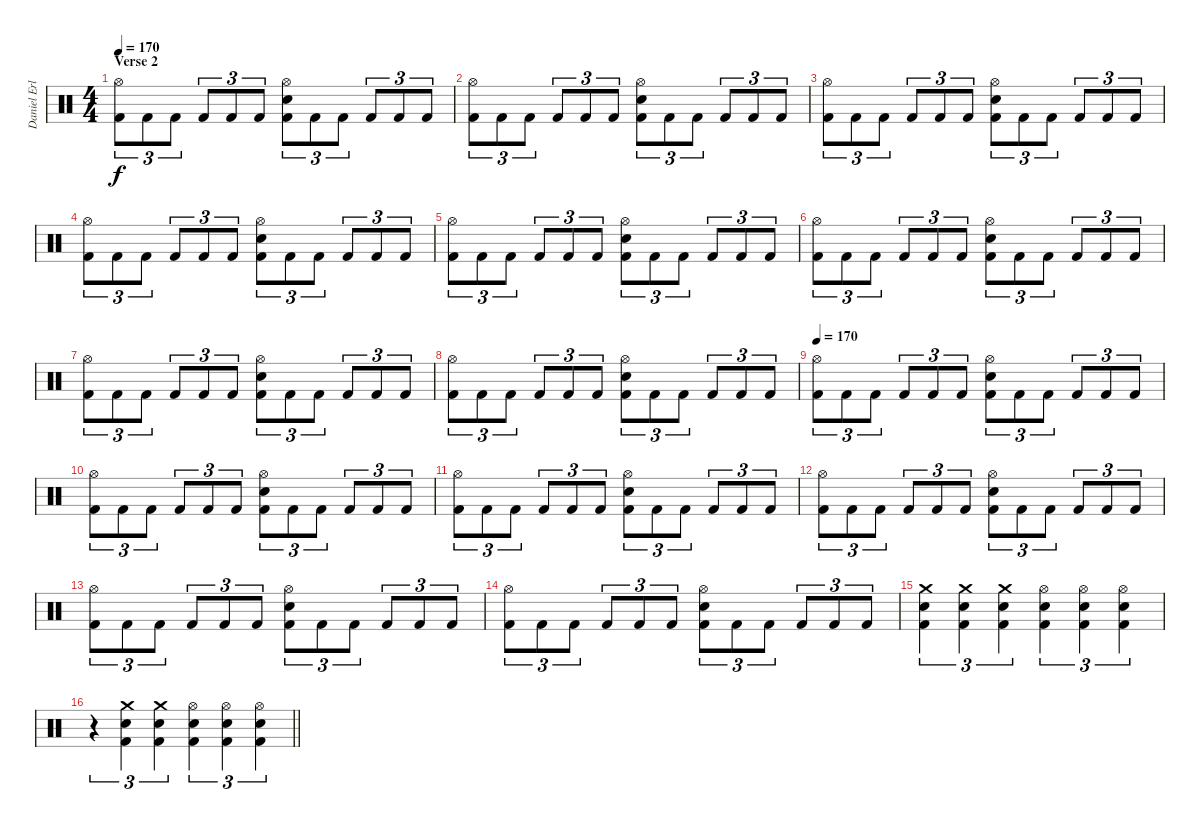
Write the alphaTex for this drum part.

\track ("Daniel Erlandsson" "Daniel Erl") {instrument percussion}
\staff {score}
\articulation defaults
\ts (4 4)
\section ("" "Verse 2")
\tempo 170
\clef neutral
\ks c
("Hi-Hat (open)" "Kick (hit) 2").8{tu (3 2) dy f} "Kick (hit) 2".8{tu (3 2)} "Kick (hit) 2".8{tu (3 2)} "Kick (hit) 2".8{tu (3 2)} "Kick (hit) 2".8{tu (3 2)} "Kick (hit) 2".8{tu (3 2)} ("Hi-Hat (open)" "Snare (hit) 2" "Kick (hit) 2").8{tu (3 2)} "Kick (hit) 2".8{tu (3 2)} "Kick (hit) 2".8{tu (3 2)} "Kick (hit) 2".8{tu (3 2)} "Kick (hit) 2".8{tu (3 2)} "Kick (hit) 2".8{tu (3 2)} |
("Hi-Hat (open)" "Kick (hit) 2").8{tu (3 2)} "Kick (hit) 2".8{tu (3 2)} "Kick (hit) 2".8{tu (3 2)} "Kick (hit) 2".8{tu (3 2)} "Kick (hit) 2".8{tu (3 2)} "Kick (hit) 2".8{tu (3 2)} ("Hi-Hat (open)" "Snare (hit) 2" "Kick (hit) 2").8{tu (3 2)} "Kick (hit) 2".8{tu (3 2)} "Kick (hit) 2".8{tu (3 2)} "Kick (hit) 2".8{tu (3 2)} "Kick (hit) 2".8{tu (3 2)} "Kick (hit) 2".8{tu (3 2)} |
("Hi-Hat (open)" "Kick (hit) 2").8{tu (3 2)} "Kick (hit) 2".8{tu (3 2)} "Kick (hit) 2".8{tu (3 2)} "Kick (hit) 2".8{tu (3 2)} "Kick (hit) 2".8{tu (3 2)} "Kick (hit) 2".8{tu (3 2)} ("Hi-Hat (open)" "Snare (hit) 2" "Kick (hit) 2").8{tu (3 2)} "Kick (hit) 2".8{tu (3 2)} "Kick (hit) 2".8{tu (3 2)} "Kick (hit) 2".8{tu (3 2)} "Kick (hit) 2".8{tu (3 2)} "Kick (hit) 2".8{tu (3 2)} |
("Hi-Hat (open)" "Kick (hit) 2").8{tu (3 2)} "Kick (hit) 2".8{tu (3 2)} "Kick (hit) 2".8{tu (3 2)} "Kick (hit) 2".8{tu (3 2)} "Kick (hit) 2".8{tu (3 2)} "Kick (hit) 2".8{tu (3 2)} ("Hi-Hat (open)" "Snare (hit) 2" "Kick (hit) 2").8{tu (3 2)} "Kick (hit) 2".8{tu (3 2)} "Kick (hit) 2".8{tu (3 2)} "Kick (hit) 2".8{tu (3 2)} "Kick (hit) 2".8{tu (3 2)} "Kick (hit) 2".8{tu (3 2)} |
("Hi-Hat (open)" "Kick (hit) 2").8{tu (3 2)} "Kick (hit) 2".8{tu (3 2)} "Kick (hit) 2".8{tu (3 2)} "Kick (hit) 2".8{tu (3 2)} "Kick (hit) 2".8{tu (3 2)} "Kick (hit) 2".8{tu (3 2)} ("Hi-Hat (open)" "Snare (hit) 2" "Kick (hit) 2").8{tu (3 2)} "Kick (hit) 2".8{tu (3 2)} "Kick (hit) 2".8{tu (3 2)} "Kick (hit) 2".8{tu (3 2)} "Kick (hit) 2".8{tu (3 2)} "Kick (hit) 2".8{tu (3 2)} |
("Hi-Hat (open)" "Kick (hit) 2").8{tu (3 2)} "Kick (hit) 2".8{tu (3 2)} "Kick (hit) 2".8{tu (3 2)} "Kick (hit) 2".8{tu (3 2)} "Kick (hit) 2".8{tu (3 2)} "Kick (hit) 2".8{tu (3 2)} ("Hi-Hat (open)" "Snare (hit) 2" "Kick (hit) 2").8{tu (3 2)} "Kick (hit) 2".8{tu (3 2)} "Kick (hit) 2".8{tu (3 2)} "Kick (hit) 2".8{tu (3 2)} "Kick (hit) 2".8{tu (3 2)} "Kick (hit) 2".8{tu (3 2)} |
("Hi-Hat (open)" "Kick (hit) 2").8{tu (3 2)} "Kick (hit) 2".8{tu (3 2)} "Kick (hit) 2".8{tu (3 2)} "Kick (hit) 2".8{tu (3 2)} "Kick (hit) 2".8{tu (3 2)} "Kick (hit) 2".8{tu (3 2)} ("Hi-Hat (open)" "Snare (hit) 2" "Kick (hit) 2").8{tu (3 2)} "Kick (hit) 2".8{tu (3 2)} "Kick (hit) 2".8{tu (3 2)} "Kick (hit) 2".8{tu (3 2)} "Kick (hit) 2".8{tu (3 2)} "Kick (hit) 2".8{tu (3 2)} |
("Hi-Hat (open)" "Kick (hit) 2").8{tu (3 2)} "Kick (hit) 2".8{tu (3 2)} "Kick (hit) 2".8{tu (3 2)} "Kick (hit) 2".8{tu (3 2)} "Kick (hit) 2".8{tu (3 2)} "Kick (hit) 2".8{tu (3 2)} ("Hi-Hat (open)" "Snare (hit) 2" "Kick (hit) 2").8{tu (3 2)} "Kick (hit) 2".8{tu (3 2)} "Kick (hit) 2".8{tu (3 2)} "Kick (hit) 2".8{tu (3 2)} "Kick (hit) 2".8{tu (3 2)} "Kick (hit) 2".8{tu (3 2)} |
\tempo 170
("Hi-Hat (open)" "Kick (hit) 2").8{tu (3 2)} "Kick (hit) 2".8{tu (3 2)} "Kick (hit) 2".8{tu (3 2)} "Kick (hit) 2".8{tu (3 2)} "Kick (hit) 2".8{tu (3 2)} "Kick (hit) 2".8{tu (3 2)} ("Hi-Hat (open)" "Snare (hit) 2" "Kick (hit) 2").8{tu (3 2)} "Kick (hit) 2".8{tu (3 2)} "Kick (hit) 2".8{tu (3 2)} "Kick (hit) 2".8{tu (3 2)} "Kick (hit) 2".8{tu (3 2)} "Kick (hit) 2".8{tu (3 2)} |
("Hi-Hat (open)" "Kick (hit) 2").8{tu (3 2)} "Kick (hit) 2".8{tu (3 2)} "Kick (hit) 2".8{tu (3 2)} "Kick (hit) 2".8{tu (3 2)} "Kick (hit) 2".8{tu (3 2)} "Kick (hit) 2".8{tu (3 2)} ("Hi-Hat (open)" "Snare (hit) 2" "Kick (hit) 2").8{tu (3 2)} "Kick (hit) 2".8{tu (3 2)} "Kick (hit) 2".8{tu (3 2)} "Kick (hit) 2".8{tu (3 2)} "Kick (hit) 2".8{tu (3 2)} "Kick (hit) 2".8{tu (3 2)} |
("Hi-Hat (open)" "Kick (hit) 2").8{tu (3 2)} "Kick (hit) 2".8{tu (3 2)} "Kick (hit) 2".8{tu (3 2)} "Kick (hit) 2".8{tu (3 2)} "Kick (hit) 2".8{tu (3 2)} "Kick (hit) 2".8{tu (3 2)} ("Hi-Hat (open)" "Snare (hit) 2" "Kick (hit) 2").8{tu (3 2)} "Kick (hit) 2".8{tu (3 2)} "Kick (hit) 2".8{tu (3 2)} "Kick (hit) 2".8{tu (3 2)} "Kick (hit) 2".8{tu (3 2)} "Kick (hit) 2".8{tu (3 2)} |
("Hi-Hat (open)" "Kick (hit) 2").8{tu (3 2)} "Kick (hit) 2".8{tu (3 2)} "Kick (hit) 2".8{tu (3 2)} "Kick (hit) 2".8{tu (3 2)} "Kick (hit) 2".8{tu (3 2)} "Kick (hit) 2".8{tu (3 2)} ("Hi-Hat (open)" "Snare (hit) 2" "Kick (hit) 2").8{tu (3 2)} "Kick (hit) 2".8{tu (3 2)} "Kick (hit) 2".8{tu (3 2)} "Kick (hit) 2".8{tu (3 2)} "Kick (hit) 2".8{tu (3 2)} "Kick (hit) 2".8{tu (3 2)} |
("Hi-Hat (open)" "Kick (hit) 2").8{tu (3 2)} "Kick (hit) 2".8{tu (3 2)} "Kick (hit) 2".8{tu (3 2)} "Kick (hit) 2".8{tu (3 2)} "Kick (hit) 2".8{tu (3 2)} "Kick (hit) 2".8{tu (3 2)} ("Hi-Hat (open)" "Snare (hit) 2" "Kick (hit) 2").8{tu (3 2)} "Kick (hit) 2".8{tu (3 2)} "Kick (hit) 2".8{tu (3 2)} "Kick (hit) 2".8{tu (3 2)} "Kick (hit) 2".8{tu (3 2)} "Kick (hit) 2".8{tu (3 2)} |
("Hi-Hat (open)" "Kick (hit) 2").8{tu (3 2)} "Kick (hit) 2".8{tu (3 2)} "Kick (hit) 2".8{tu (3 2)} "Kick (hit) 2".8{tu (3 2)} "Kick (hit) 2".8{tu (3 2)} "Kick (hit) 2".8{tu (3 2)} ("Hi-Hat (open)" "Snare (hit) 2" "Kick (hit) 2").8{tu (3 2)} "Kick (hit) 2".8{tu (3 2)} "Kick (hit) 2".8{tu (3 2)} "Kick (hit) 2".8{tu (3 2)} "Kick (hit) 2".8{tu (3 2)} "Kick (hit) 2".8{tu (3 2)} |
("Crash medium (hit)" "Snare (hit) 2" "Kick (hit) 2").4{tu (3 2)} ("Crash medium (hit)" "Snare (hit) 2" "Kick (hit) 2").4{tu (3 2)} ("Crash medium (hit)" "Snare (hit) 2" "Kick (hit) 2").4{tu (3 2)} ("Hi-Hat (open)" "Snare (hit) 2" "Kick (hit) 2").4{tu (3 2)} ("Hi-Hat (open)" "Snare (hit) 2" "Kick (hit) 2").4{tu (3 2)} ("Hi-Hat (open)" "Snare (hit) 2" "Kick (hit) 2").4{tu (3 2)} |
\barLineRight lightlight
r.4{tu (3 2)} ("Crash medium (hit)" "Snare (hit) 2" "Kick (hit) 2").4{tu (3 2)} ("Crash medium (hit)" "Snare (hit) 2" "Kick (hit) 2").4{tu (3 2)} ("Hi-Hat (open)" "Snare (hit) 2" "Kick (hit) 2").4{tu (3 2)} ("Hi-Hat (open)" "Snare (hit) 2" "Kick (hit) 2").4{tu (3 2)} ("Hi-Hat (open)" "Snare (hit) 2" "Kick (hit) 2").4{tu (3 2)}
